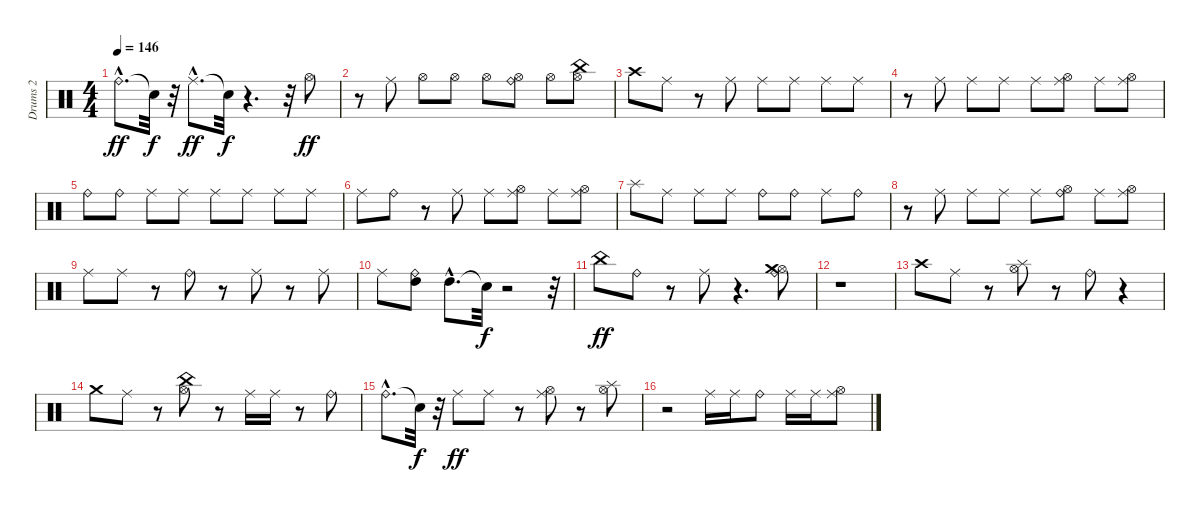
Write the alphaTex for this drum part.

\track ("Drums 2" "Drums 2") {instrument percussion}
\staff {score}
\articulation defaults
\ts (4 4)
\tempo 146
\clef neutral
\ks c "Ride (bell)"{hac}.8{d dy ff} "Snare (hit)"{t}.32{dy f}
r.32 "Ride (middle)"{hac}.8{d dy ff} "Snare (hit)"{t}.32{dy f} r.4{d} r.32 "Hi-Hat (open)".8{dy ff} |
r.8 "Ride (middle)".8 "Hi-Hat (open)".8 "Hi-Hat (open)".8 "Hi-Hat (open)".8 ("Hi-Hat (open)" "Ride (bell)").8 "Hi-Hat (open)".8 ("Hi-Hat (open)" "China (hit)").8 |
"Crash high (hit)".8 "Ride (middle)".8 r.8 "Ride (middle)".8 "Ride (middle)".8 "Ride (middle)".8 "Ride (middle)".8 "Ride (middle)".8 |
r.8 "Ride (middle)".8 "Ride (middle)".8 "Ride (middle)".8 "Ride (middle)".8 ("Hi-Hat (open)" "Ride (middle)").8 "Ride (middle)".8 ("Hi-Hat (open)" "Ride (middle)").8 |
"Ride (bell)".8 "Ride (bell)".8 "Ride (middle)".8 "Ride (middle)".8 "Ride (middle)".8 "Ride (middle)".8 "Ride (middle)".8 "Ride (middle)".8 |
"Ride (middle)".8 "Ride (bell)".8 r.8 "Ride (middle)".8 "Ride (middle)".8 ("Hi-Hat (open)" "Ride (middle)").8 "Ride (middle)".8 ("Hi-Hat (open)" "Ride (middle)").8 |
"Splash (hit)".8 "Ride (middle)".8 "Ride (middle)".8 "Ride (middle)".8 "Ride (bell)".8 "Ride (bell)".8 "Ride (middle)".8 "Ride (bell)".8 |
r.8 "Ride (middle)".8 "Ride (middle)".8 "Ride (middle)".8 "Ride (middle)".8 ("Hi-Hat (open)" "Ride (bell)").8 "Ride (middle)".8 ("Hi-Hat (open)" "Ride (middle)").8 |
"Ride (middle)".8 "Ride (middle)".8 r.8 "Ride (bell)".8 r.8 "Ride (middle)".8 r.8 "Ride (middle)".8 |
"Ride (middle)".8 ("High Tom (hit)" "Ride (bell)").8 "High Tom (hit)"{hac}.8{d} "Snare (hit)"{t}.32{dy f} r.2 r.32 |
"China (hit)".8{dy ff} "Ride (bell)".8 r.8 "Ride (middle)".8 r.4{d} ("Hi-Hat (open)" "Ride (bell)" "Crash medium (hit)").8 |
r.1 |
"Crash high (hit)".8 "Ride (middle)".8 r.8 ("Hi-Hat (open)" "Splash (hit)").8 r.8 "Ride (bell)".8 r.4 |
"Crash medium (hit)".8 "Ride (middle)".8 r.8 ("Hi-Hat (open)" "China (hit)").8 r.8 "Ride (middle)".16 "Ride (middle)".16 r.8 "Ride (bell)".8 |
"Ride (bell)"{hac}.8{d} "Snare (hit)"{t}.32{dy f} r.32 "Ride (middle)".8{dy ff} "Ride (middle)".8 r.8 ("Hi-Hat (open)" "Ride (middle)").8 r.8 ("Hi-Hat (open)" "Splash (hit)").8 |
r.2 "Ride (middle)".16 "Ride (middle)".16 "Ride (bell)".8 "Ride (middle)".16 "Ride (middle)".16 ("Hi-Hat (open)" "Ride (middle)").8
